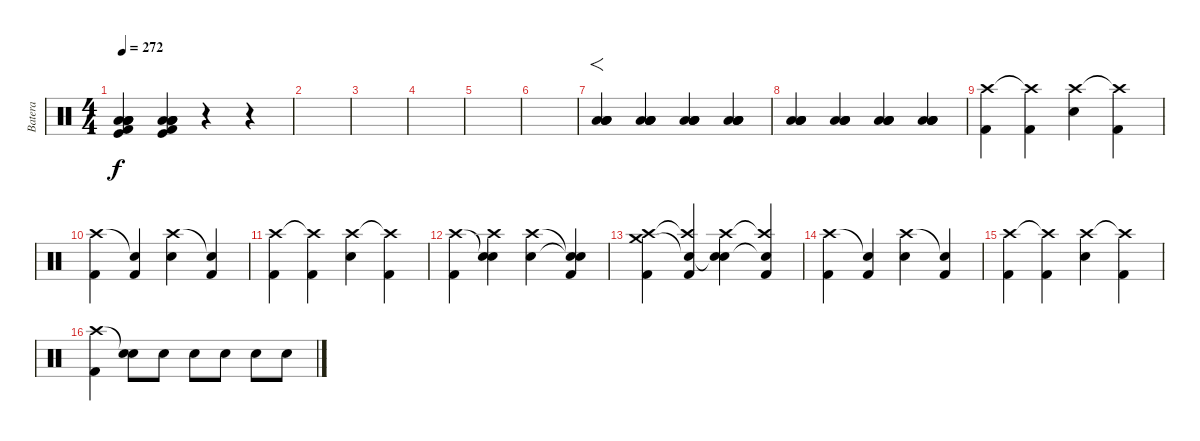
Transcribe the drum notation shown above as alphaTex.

\track ("Batera" "Batera") {instrument percussion}
\staff {score}
\articulation defaults
\ts (4 4)
\tempo 272
\clef neutral
\ks c
("Low Floor Tom (hit)" "Kick (hit)" "Low Tom (hit)" "Low Tom (hit)" "Low Tom (hit)" "Kick (hit) 2").4{dy f} ("Low Floor Tom (hit)" "Kick (hit)" "Low Tom (hit)" "Low Tom (hit)" "Low Tom (hit)" "Kick (hit) 2").4 r.4 r.4 |
|
|
|
|
|
("Low Tom (hit)" "Low Tom (hit)" "Low Tom (hit)" "Low Floor Tom (hit)").4{f} ("Low Tom (hit)" "Low Tom (hit)" "Low Tom (hit)" "Low Floor Tom (hit)").4 ("Low Tom (hit)" "Low Tom (hit)" "Low Tom (hit)" "Low Floor Tom (hit)").4 ("Low Tom (hit)" "Low Tom (hit)" "Low Tom (hit)" "Low Floor Tom (hit)").4 |
("Low Tom (hit)" "Low Tom (hit)" "Low Tom (hit)" "Low Floor Tom (hit)").4 ("Low Tom (hit)" "Low Tom (hit)" "Low Tom (hit)" "Low Floor Tom (hit)").4 ("Low Tom (hit)" "Low Tom (hit)" "Low Tom (hit)" "Low Floor Tom (hit)").4 ("Low Tom (hit)" "Low Tom (hit)" "Low Tom (hit)" "Low Floor Tom (hit)").4 |
("Crash high (hit)" "Kick (hit) 2").4 ("Crash high (hit)"{t} "Kick (hit) 2").4 ("Crash high (hit)" "Electric Snare (hit)").4 ("Crash high (hit)"{t} "Kick (hit) 2").4 |
("Crash high (hit)" "Kick (hit) 2").4 ("Snare (hit)"{t} "Kick (hit) 2").4 ("Crash high (hit)" "Electric Snare (hit)").4 ("Snare (hit)"{t} "Kick (hit) 2").4 |
("Crash high (hit)" "Kick (hit) 2").4 ("Crash high (hit)"{t} "Kick (hit) 2").4 ("Crash high (hit)" "Electric Snare (hit)").4 ("Crash high (hit)"{t} "Kick (hit) 2").4 |
("Crash high (hit)" "Kick (hit) 2").4 ("Snare (hit)"{t} "Crash high (hit)" "Electric Snare (hit)").4 ("Crash high (hit)" "Electric Snare (hit)").4 ("Snare (hit)"{t} "Snare (hit)"{t} "Kick (hit) 2").4 |
("Crash high (hit)" "Crash medium (hit)" "Kick (hit) 2").4 ("Crash high (hit)"{t} "Snare (hit)"{t} "Kick (hit) 2").4 ("Crash high (hit)" "Snare (hit)"{t} "Electric Snare (hit)").4 ("Crash high (hit)"{t} "Snare (hit)"{t} "Kick (hit) 2").4 |
("Crash high (hit)" "Kick (hit) 2").4 ("Snare (hit)"{t} "Kick (hit) 2").4 ("Crash high (hit)" "Electric Snare (hit)").4 ("Snare (hit)"{t} "Kick (hit) 2").4 |
("Crash high (hit)" "Kick (hit) 2").4 ("Crash high (hit)"{t} "Kick (hit) 2").4 ("Crash high (hit)" "Electric Snare (hit)").4 ("Crash high (hit)"{t} "Kick (hit) 2").4 |
("Crash high (hit)" "Kick (hit) 2").4 ("Snare (hit)"{t} "Electric Snare (hit)").8 "Electric Snare (hit)".8 "Electric Snare (hit)".8 "Electric Snare (hit)".8 "Electric Snare (hit)".8 "Electric Snare (hit)".8
